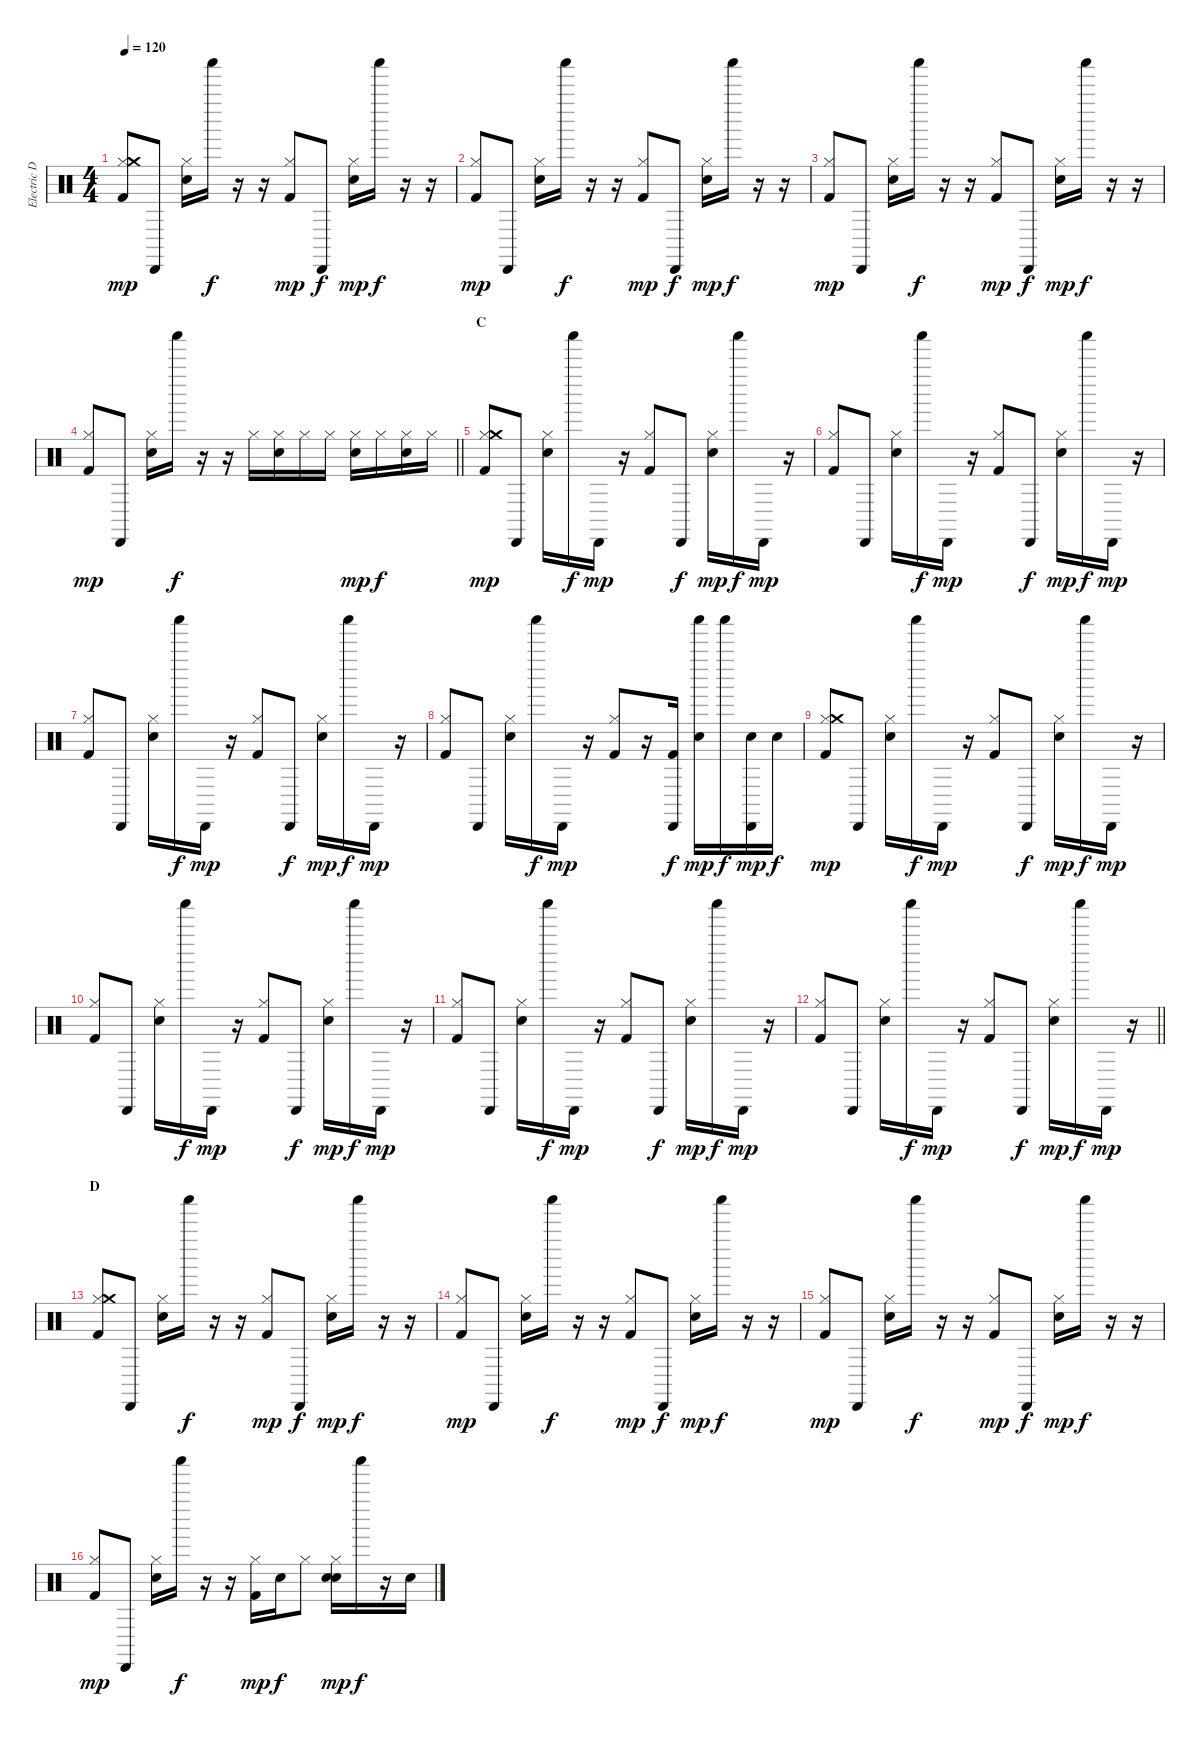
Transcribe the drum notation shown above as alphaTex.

\track ("Electric Drum" "Electric D") {instrument percussion}
\staff {score}
\articulation defaults
\ts (4 4)
\tempo 120
\clef neutral
\ks c
("Hi-Hat (closed)" "Crash medium (hit)" "Kick (hit) 2").8{dy mp} "Cabasa (hit)".8 ("Hi-Hat (closed)" "Snare (hit) 2").16 "Shaker (hit)".16{dy f} r.16 r.16 ("Hi-Hat (closed)" "Kick (hit) 2").8{dy mp} "Cabasa (hit)".8{dy f} ("Hi-Hat (closed)" "Snare (hit) 2").16{dy mp} "Shaker (hit)".16{dy f} r.16 r.16 |
("Hi-Hat (closed)" "Kick (hit) 2").8{dy mp} "Cabasa (hit)".8 ("Hi-Hat (closed)" "Snare (hit) 2").16 "Shaker (hit)".16{dy f} r.16 r.16 ("Hi-Hat (closed)" "Kick (hit) 2").8{dy mp} "Cabasa (hit)".8{dy f} ("Hi-Hat (closed)" "Snare (hit) 2").16{dy mp} "Shaker (hit)".16{dy f} r.16 r.16 |
("Hi-Hat (closed)" "Kick (hit) 2").8{dy mp} "Cabasa (hit)".8 ("Hi-Hat (closed)" "Snare (hit) 2").16 "Shaker (hit)".16{dy f} r.16 r.16 ("Hi-Hat (closed)" "Kick (hit) 2").8{dy mp} "Cabasa (hit)".8{dy f} ("Hi-Hat (closed)" "Snare (hit) 2").16{dy mp} "Shaker (hit)".16{dy f} r.16 r.16 |
\barLineRight lightlight
("Hi-Hat (closed)" "Kick (hit) 2").8{dy mp} "Cabasa (hit)".8 ("Hi-Hat (closed)" "Snare (hit) 2").16 "Shaker (hit)".16{dy f} r.16 r.16 "Hi-Hat (closed)".16 ("Hi-Hat (closed)" "Hand Clap (hit)").16 "Hi-Hat (closed)".16 "Hi-Hat (closed)".16 ("Hi-Hat (closed)" "Snare (hit) 2").16{dy mp} "Hi-Hat (closed)".16{dy f} ("Hi-Hat (closed)" "Snare (hit) 2").16 "Hi-Hat (closed)".16 |
\section ("" "C")
("Hi-Hat (closed)" "Crash medium (hit)" "Kick (hit) 2").8{dy mp} "Cabasa (hit)".8 ("Hi-Hat (closed)" "Snare (hit) 2").16 "Shaker (hit)".16{dy f} "Cabasa (hit)".16{dy mp} r.16 ("Hi-Hat (closed)" "Kick (hit) 2").8 "Cabasa (hit)".8{dy f} ("Hi-Hat (closed)" "Snare (hit) 2").16{dy mp} "Shaker (hit)".16{dy f} "Cabasa (hit)".16{dy mp} r.16 |
("Hi-Hat (closed)" "Kick (hit) 2").8 "Cabasa (hit)".8 ("Hi-Hat (closed)" "Snare (hit) 2").16 "Shaker (hit)".16{dy f} "Cabasa (hit)".16{dy mp} r.16 ("Hi-Hat (closed)" "Kick (hit) 2").8 "Cabasa (hit)".8{dy f} ("Hi-Hat (closed)" "Snare (hit) 2").16{dy mp} "Shaker (hit)".16{dy f} "Cabasa (hit)".16{dy mp} r.16 |
("Hi-Hat (closed)" "Kick (hit) 2").8 "Cabasa (hit)".8 ("Hi-Hat (closed)" "Snare (hit) 2").16 "Shaker (hit)".16{dy f} "Cabasa (hit)".16{dy mp} r.16 ("Hi-Hat (closed)" "Kick (hit) 2").8 "Cabasa (hit)".8{dy f} ("Hi-Hat (closed)" "Snare (hit) 2").16{dy mp} "Shaker (hit)".16{dy f} "Cabasa (hit)".16{dy mp} r.16 |
("Hi-Hat (closed)" "Kick (hit) 2").8 "Cabasa (hit)".8 ("Hi-Hat (closed)" "Snare (hit) 2").16 "Shaker (hit)".16{dy f} "Cabasa (hit)".16{dy mp} r.16 ("Hi-Hat (closed)" "Kick (hit) 2").8 r.16 ("Cabasa (hit)" "Kick (hit) 2").16{dy f} ("Shaker (hit)" "Snare (hit) 2").16{dy mp} "Shaker (hit)".16{dy f} ("Cabasa (hit)" "Snare (hit) 2").16{dy mp} "Electric Snare (hit)".16{dy f} |
("Hi-Hat (closed)" "Crash medium (hit)" "Kick (hit) 2").8{dy mp} "Cabasa (hit)".8 ("Hi-Hat (closed)" "Snare (hit) 2").16 "Shaker (hit)".16{dy f} "Cabasa (hit)".16{dy mp} r.16 ("Hi-Hat (closed)" "Kick (hit) 2").8 "Cabasa (hit)".8{dy f} ("Hi-Hat (closed)" "Snare (hit) 2").16{dy mp} "Shaker (hit)".16{dy f} "Cabasa (hit)".16{dy mp} r.16 |
("Hi-Hat (closed)" "Kick (hit) 2").8 "Cabasa (hit)".8 ("Hi-Hat (closed)" "Snare (hit) 2").16 "Shaker (hit)".16{dy f} "Cabasa (hit)".16{dy mp} r.16 ("Hi-Hat (closed)" "Kick (hit) 2").8 "Cabasa (hit)".8{dy f} ("Hi-Hat (closed)" "Snare (hit) 2").16{dy mp} "Shaker (hit)".16{dy f} "Cabasa (hit)".16{dy mp} r.16 |
("Hi-Hat (closed)" "Kick (hit) 2").8 "Cabasa (hit)".8 ("Hi-Hat (closed)" "Snare (hit) 2").16 "Shaker (hit)".16{dy f} "Cabasa (hit)".16{dy mp} r.16 ("Hi-Hat (closed)" "Kick (hit) 2").8 "Cabasa (hit)".8{dy f} ("Hi-Hat (closed)" "Snare (hit) 2").16{dy mp} "Shaker (hit)".16{dy f} "Cabasa (hit)".16{dy mp} r.16 |
\barLineRight lightlight
("Hi-Hat (closed)" "Kick (hit) 2").8 "Cabasa (hit)".8 ("Hi-Hat (closed)" "Snare (hit) 2").16 "Shaker (hit)".16{dy f} "Cabasa (hit)".16{dy mp} r.16 ("Hi-Hat (closed)" "Kick (hit) 2").8 "Cabasa (hit)".8{dy f} ("Hi-Hat (closed)" "Snare (hit) 2").16{dy mp} "Shaker (hit)".16{dy f} "Cabasa (hit)".16{dy mp} r.16 |
\section ("" "D")
("Hi-Hat (closed)" "Crash medium (hit)" "Kick (hit) 2").8 "Cabasa (hit)".8 ("Hi-Hat (closed)" "Snare (hit) 2").16 "Shaker (hit)".16{dy f} r.16 r.16 ("Hi-Hat (closed)" "Kick (hit) 2").8{dy mp} "Cabasa (hit)".8{dy f} ("Hi-Hat (closed)" "Snare (hit) 2").16{dy mp} "Shaker (hit)".16{dy f} r.16 r.16 |
("Hi-Hat (closed)" "Kick (hit) 2").8{dy mp} "Cabasa (hit)".8 ("Hi-Hat (closed)" "Snare (hit) 2").16 "Shaker (hit)".16{dy f} r.16 r.16 ("Hi-Hat (closed)" "Kick (hit) 2").8{dy mp} "Cabasa (hit)".8{dy f} ("Hi-Hat (closed)" "Snare (hit) 2").16{dy mp} "Shaker (hit)".16{dy f} r.16 r.16 |
("Hi-Hat (closed)" "Kick (hit) 2").8{dy mp} "Cabasa (hit)".8 ("Hi-Hat (closed)" "Snare (hit) 2").16 "Shaker (hit)".16{dy f} r.16 r.16 ("Hi-Hat (closed)" "Kick (hit) 2").8{dy mp} "Cabasa (hit)".8{dy f} ("Hi-Hat (closed)" "Snare (hit) 2").16{dy mp} "Shaker (hit)".16{dy f} r.16 r.16 |
("Hi-Hat (closed)" "Kick (hit) 2").8{dy mp} "Cabasa (hit)".8 ("Hi-Hat (closed)" "Snare (hit) 2").16 "Shaker (hit)".16{dy f} r.16 r.16 ("Hi-Hat (closed)" "Kick (hit) 2").16{dy mp} "Hand Clap (hit)".16{dy f} "Hi-Hat (closed)".8 ("Hi-Hat (closed)" "Snare (hit) 2" "Hand Clap (hit)").16{dy mp} "Shaker (hit)".16{dy f} r.16 "Hand Clap (hit)".16
